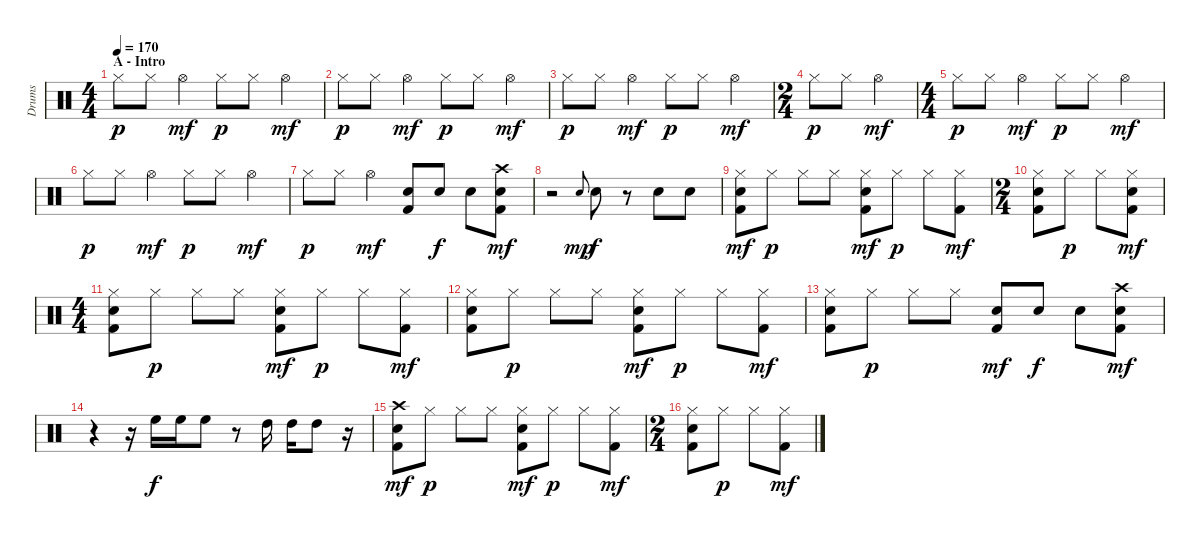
\track ("Drums" "Drums") {instrument percussion}
\staff {score}
\articulation defaults
\ts (4 4)
\section ("" "A - Intro")
\tempo 170
\clef neutral
\ks c "Hi-Hat (closed)".8{dy p volume 7} "Hi-Hat (closed)".8 "Hi-Hat (open)".4{dy mf} "Hi-Hat (closed)".8{dy p} "Hi-Hat (closed)".8 "Hi-Hat (open)".4{dy mf}
|
"Hi-Hat (closed)".8{dy p} "Hi-Hat (closed)".8 "Hi-Hat (open)".4{dy mf} "Hi-Hat (closed)".8{dy p} "Hi-Hat (closed)".8 "Hi-Hat (open)".4{dy mf} |
"Hi-Hat (closed)".8{dy p volume 11} "Hi-Hat (closed)".8 "Hi-Hat (open)".4{dy mf} "Hi-Hat (closed)".8{dy p} "Hi-Hat (closed)".8 "Hi-Hat (open)".4{dy mf} |
\ts (2 4)
"Hi-Hat (closed)".8{dy p} "Hi-Hat (closed)".8 "Hi-Hat (open)".4{dy mf} |
\ts (4 4)
"Hi-Hat (closed)".8{dy p} "Hi-Hat (closed)".8 "Hi-Hat (open)".4{dy mf} "Hi-Hat (closed)".8{dy p} "Hi-Hat (closed)".8 "Hi-Hat (open)".4{dy mf} |
"Hi-Hat (closed)".8{dy p} "Hi-Hat (closed)".8 "Hi-Hat (open)".4{dy mf} "Hi-Hat (closed)".8{dy p} "Hi-Hat (closed)".8 "Hi-Hat (open)".4{dy mf} |
"Hi-Hat (closed)".8{dy p} "Hi-Hat (closed)".8 "Hi-Hat (open)".4{dy mf} ("Electric Snare (hit)" "Kick (hit) 2").8 "Electric Snare (hit)".8{dy f} "Electric Snare (hit)".8 ("Crash high (hit)" "Electric Snare (hit)" "Kick (hit) 2").8{dy mf} |
r.2 "Electric Snare (hit)".8{gr onbeat dy mp} "Electric Snare (hit)".8{dy f} r.8 "Electric Snare (hit)".8 "Electric Snare (hit)".8 |
("Hi-Hat (closed)" "Electric Snare (hit)" "Kick (hit) 2").8{dy mf} "Hi-Hat (closed)".8{dy p} "Hi-Hat (closed)".8 "Hi-Hat (closed)".8 ("Hi-Hat (closed)" "Electric Snare (hit)" "Kick (hit) 2").8{dy mf} "Hi-Hat (closed)".8{dy p} "Hi-Hat (closed)".8 ("Hi-Hat (closed)" "Kick (hit) 2").8{dy mf} |
\ts (2 4)
("Hi-Hat (closed)" "Electric Snare (hit)" "Kick (hit) 2").8 "Hi-Hat (closed)".8{dy p} "Hi-Hat (closed)".8 ("Hi-Hat (closed)" "Electric Snare (hit)" "Kick (hit) 2").8{dy mf} |
\ts (4 4)
("Hi-Hat (closed)" "Electric Snare (hit)" "Kick (hit) 2").8 "Hi-Hat (closed)".8{dy p} "Hi-Hat (closed)".8 "Hi-Hat (closed)".8 ("Hi-Hat (closed)" "Electric Snare (hit)" "Kick (hit) 2").8{dy mf} "Hi-Hat (closed)".8{dy p} "Hi-Hat (closed)".8 ("Hi-Hat (closed)" "Kick (hit) 2").8{dy mf} |
("Hi-Hat (closed)" "Electric Snare (hit)" "Kick (hit) 2").8 "Hi-Hat (closed)".8{dy p} "Hi-Hat (closed)".8 "Hi-Hat (closed)".8 ("Hi-Hat (closed)" "Electric Snare (hit)" "Kick (hit) 2").8{dy mf} "Hi-Hat (closed)".8{dy p} "Hi-Hat (closed)".8 ("Hi-Hat (closed)" "Kick (hit) 2").8{dy mf} |
("Hi-Hat (closed)" "Electric Snare (hit)" "Kick (hit) 2").8 "Hi-Hat (closed)".8{dy p} "Hi-Hat (closed)".8 "Hi-Hat (closed)".8 ("Electric Snare (hit)" "Kick (hit) 2").8{dy mf} "Electric Snare (hit)".8{dy f} "Electric Snare (hit)".8 ("Crash high (hit)" "Electric Snare (hit)" "Kick (hit) 2").8{dy mf} |
r.4 r.16 "High Floor Tom (hit)".16{dy f} "High Floor Tom (hit)".16 "High Floor Tom (hit)".8 r.8 "High Tom (hit)".16 "High Tom (hit)".16 "High Tom (hit)".8 r.16 |
("Crash high (hit)" "Electric Snare (hit)" "Kick (hit) 2").8{dy mf} "Hi-Hat (closed)".8{dy p} "Hi-Hat (closed)".8 "Hi-Hat (closed)".8 ("Hi-Hat (closed)" "Electric Snare (hit)" "Kick (hit) 2").8{dy mf} "Hi-Hat (closed)".8{dy p} "Hi-Hat (closed)".8 ("Hi-Hat (closed)" "Kick (hit) 2").8{dy mf} |
\ts (2 4)
("Hi-Hat (closed)" "Electric Snare (hit)" "Kick (hit) 2").8 "Hi-Hat (closed)".8{dy p} "Hi-Hat (closed)".8 ("Hi-Hat (closed)" "Kick (hit) 2").8{dy mf}
